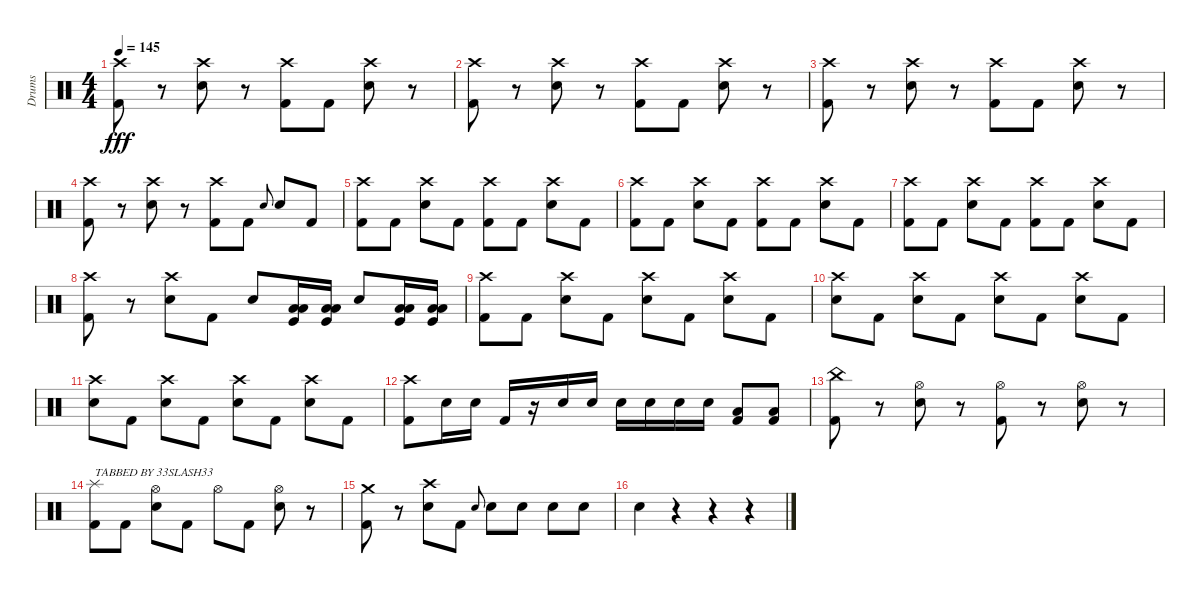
\track ("Drums" "Drums") {instrument percussion}
\staff {score}
\articulation defaults
\ts (4 4)
\tempo 145
\clef neutral
\ks c
("Crash high (hit)" "Kick (hit) 2").8{dy fff} r.8 ("Crash high (hit)" "Snare (hit) 2").8 r.8 ("Crash high (hit)" "Kick (hit) 2").8 "Kick (hit) 2".8 ("Crash high (hit)" "Snare (hit) 2").8 r.8 |
("Crash high (hit)" "Kick (hit) 2").8 r.8 ("Crash high (hit)" "Snare (hit) 2").8 r.8 ("Crash high (hit)" "Kick (hit) 2").8 "Kick (hit) 2".8 ("Crash high (hit)" "Snare (hit) 2").8 r.8 |
("Crash high (hit)" "Kick (hit) 2").8 r.8 ("Crash high (hit)" "Snare (hit) 2").8 r.8 ("Crash high (hit)" "Kick (hit) 2").8 "Kick (hit) 2".8 ("Crash high (hit)" "Snare (hit) 2").8 r.8 |
("Crash high (hit)" "Kick (hit) 2").8 r.8 ("Crash high (hit)" "Snare (hit) 2").8 r.8 ("Crash high (hit)" "Kick (hit) 2").8 "Kick (hit) 2".8 "Snare (hit) 2".8{gr onbeat} "Snare (hit) 2".8 "Kick (hit) 2".8 |
("Crash high (hit)" "Kick (hit) 2").8 "Kick (hit) 2".8 ("Crash high (hit)" "Snare (hit) 2").8 "Kick (hit) 2".8 ("Crash high (hit)" "Kick (hit) 2").8 "Kick (hit) 2".8 ("Crash high (hit)" "Snare (hit) 2").8 "Kick (hit) 2".8 |
("Crash high (hit)" "Kick (hit) 2").8 "Kick (hit) 2".8 ("Crash high (hit)" "Snare (hit) 2").8 "Kick (hit) 2".8 ("Crash high (hit)" "Kick (hit) 2").8 "Kick (hit) 2".8 ("Crash high (hit)" "Snare (hit) 2").8 "Kick (hit) 2".8 |
("Crash high (hit)" "Kick (hit) 2").8 "Kick (hit) 2".8 ("Crash high (hit)" "Snare (hit) 2").8 "Kick (hit) 2".8 ("Crash high (hit)" "Kick (hit) 2").8 "Kick (hit) 2".8 ("Crash high (hit)" "Snare (hit) 2").8 "Kick (hit) 2".8 |
("Crash high (hit)" "Kick (hit) 2").8 r.8 ("Crash high (hit)" "Snare (hit) 2").8 "Kick (hit) 2".8 "Snare (hit) 2".8 ("Low Floor Tom (hit)" "Low Floor Tom (hit)" "Kick (hit)").16 ("Low Floor Tom (hit)" "Low Floor Tom (hit)" "Kick (hit)").16 "Snare (hit) 2".8 ("Low Floor Tom (hit)" "Low Floor Tom (hit)" "Kick (hit)").16 ("Low Floor Tom (hit)" "Low Floor Tom (hit)" "Kick (hit)").16 |
("Crash high (hit)" "Kick (hit) 2").8 "Kick (hit) 2".8 ("Crash high (hit)" "Snare (hit) 2").8 "Kick (hit) 2".8 ("Crash high (hit)" "Snare (hit) 2").8 "Kick (hit) 2".8 ("Crash high (hit)" "Snare (hit) 2").8 "Kick (hit) 2".8 |
("Crash high (hit)" "Snare (hit) 2").8 "Kick (hit) 2".8 ("Crash high (hit)" "Snare (hit) 2").8 "Kick (hit) 2".8 ("Crash high (hit)" "Snare (hit) 2").8 "Kick (hit) 2".8 ("Crash high (hit)" "Snare (hit) 2").8 "Kick (hit) 2".8 |
("Crash high (hit)" "Snare (hit) 2").8 "Kick (hit) 2".8 ("Crash high (hit)" "Snare (hit) 2").8 "Kick (hit) 2".8 ("Crash high (hit)" "Snare (hit) 2").8 "Kick (hit) 2".8 ("Crash high (hit)" "Snare (hit) 2").8 "Kick (hit) 2".8 |
("Crash high (hit)" "Kick (hit) 2").8 "Snare (hit) 2".16 "Snare (hit) 2".16 "Kick (hit) 2".16 r.16 "Snare (hit) 2".16 "Snare (hit) 2".16 "Snare (hit) 2".16 "Snare (hit) 2".16 "Snare (hit) 2".16 "Snare (hit) 2".16 ("Low Floor Tom (hit)" "Kick (hit) 2").8 ("Low Floor Tom (hit)" "Kick (hit) 2").8 |
("China (hit)" "Kick (hit) 2").8 r.8 ("Hi-Hat (open)" "Snare (hit) 2").8 r.8 ("Hi-Hat (open)" "Kick (hit) 2").8 r.8 ("Hi-Hat (open)" "Snare (hit) 2").8 r.8 |
("Splash (hit)" "Kick (hit) 2").8{txt "TABBED BY 33SLASH33"} "Kick (hit) 2".8 ("Hi-Hat (open)" "Snare (hit) 2").8 "Kick (hit) 2".8 "Hi-Hat (open)".8 "Kick (hit) 2".8 ("Hi-Hat (open)" "Snare (hit) 2").8 r.8 |
("Crash medium (hit)" "Kick (hit) 2").8 r.8 ("Crash high (hit)" "Snare (hit) 2").8 "Kick (hit) 2".8 "Snare (hit) 2".8{gr onbeat} "Snare (hit) 2".8 "Snare (hit) 2".8 "Snare (hit) 2".8 "Snare (hit) 2".8 |
"Snare (hit) 2".4 r.4 r.4 r.4
